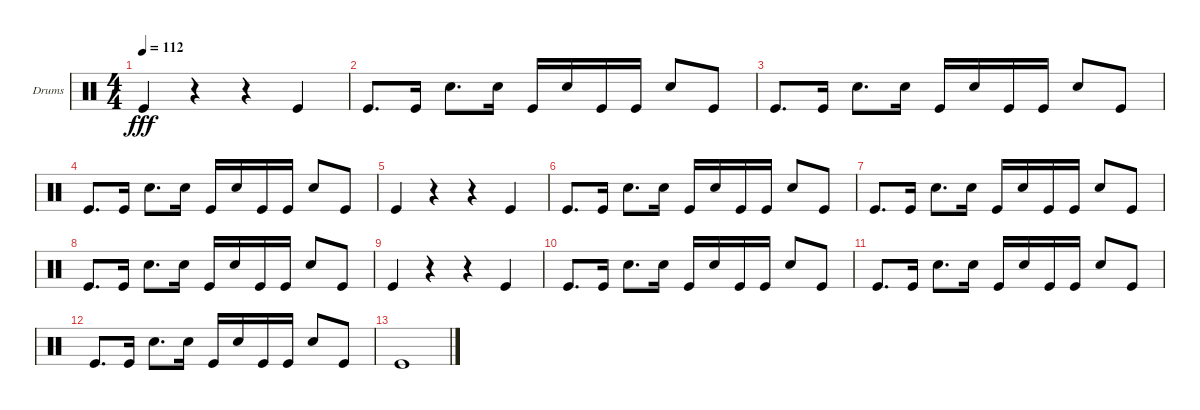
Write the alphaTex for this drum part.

\defaultSystemsLayout 4
\bracketExtendMode groupsimilarinstruments
\firstSystemTrackNameOrientation horizontal
\otherSystemsTrackNameOrientation horizontal
\track ("Пашок" "Drums") {instrument percussion}
\staff {score}
\articulation defaults
\ts (4 4)
\tempo 112
\clef neutral
\ks c "Kick (hit)".4{dy fff}
r.4 r.4 "Kick (hit)".4 |
"Kick (hit)".8{d} "Kick (hit)".16 "Snare (hit) 2".8{d} "Snare (hit) 2".16 "Kick (hit)".16 "Snare (hit) 2".16 "Kick (hit)".16 "Kick (hit)".16 "Snare (hit) 2".8 "Kick (hit)".8 |
"Kick (hit)".8{d} "Kick (hit)".16 "Snare (hit) 2".8{d} "Snare (hit) 2".16 "Kick (hit)".16 "Snare (hit) 2".16 "Kick (hit)".16 "Kick (hit)".16 "Snare (hit) 2".8 "Kick (hit)".8 |
"Kick (hit)".8{d} "Kick (hit)".16 "Snare (hit) 2".8{d} "Snare (hit) 2".16 "Kick (hit)".16 "Snare (hit) 2".16 "Kick (hit)".16 "Kick (hit)".16 "Snare (hit) 2".8 "Kick (hit)".8 |
"Kick (hit)".4 r.4 r.4 "Kick (hit)".4 |
"Kick (hit)".8{d} "Kick (hit)".16 "Snare (hit) 2".8{d} "Snare (hit) 2".16 "Kick (hit)".16 "Snare (hit) 2".16 "Kick (hit)".16 "Kick (hit)".16 "Snare (hit) 2".8 "Kick (hit)".8 |
"Kick (hit)".8{d} "Kick (hit)".16 "Snare (hit) 2".8{d} "Snare (hit) 2".16 "Kick (hit)".16 "Snare (hit) 2".16 "Kick (hit)".16 "Kick (hit)".16 "Snare (hit) 2".8 "Kick (hit)".8 |
"Kick (hit)".8{d} "Kick (hit)".16 "Snare (hit) 2".8{d} "Snare (hit) 2".16 "Kick (hit)".16 "Snare (hit) 2".16 "Kick (hit)".16 "Kick (hit)".16 "Snare (hit) 2".8 "Kick (hit)".8 |
"Kick (hit)".4 r.4 r.4 "Kick (hit)".4 |
"Kick (hit)".8{d} "Kick (hit)".16 "Snare (hit) 2".8{d} "Snare (hit) 2".16 "Kick (hit)".16 "Snare (hit) 2".16 "Kick (hit)".16 "Kick (hit)".16 "Snare (hit) 2".8 "Kick (hit)".8 |
"Kick (hit)".8{d} "Kick (hit)".16 "Snare (hit) 2".8{d} "Snare (hit) 2".16 "Kick (hit)".16 "Snare (hit) 2".16 "Kick (hit)".16 "Kick (hit)".16 "Snare (hit) 2".8 "Kick (hit)".8 |
"Kick (hit)".8{d} "Kick (hit)".16 "Snare (hit) 2".8{d} "Snare (hit) 2".16 "Kick (hit)".16 "Snare (hit) 2".16 "Kick (hit)".16 "Kick (hit)".16 "Snare (hit) 2".8 "Kick (hit)".8 |
"Kick (hit)".1
